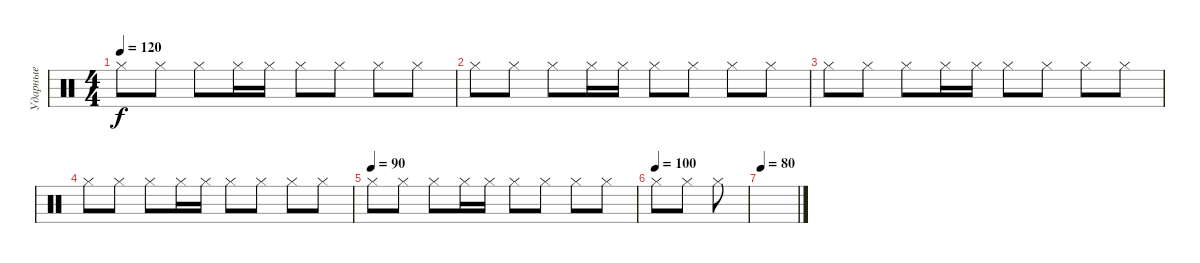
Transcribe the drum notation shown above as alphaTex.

\track ("Ударные" "Ударные") {instrument percussion}
\staff {score}
\articulation defaults
\ts (4 4)
\tempo 120
\clef neutral
\ks c "Hi-Hat (closed)".8{dy f} "Hi-Hat (closed)".8 "Hi-Hat (closed)".8 "Hi-Hat (closed)".16 "Hi-Hat (closed)".16 "Hi-Hat (closed)".8 "Hi-Hat (closed)".8 "Hi-Hat (closed)".8 "Hi-Hat (closed)".8
|
"Hi-Hat (closed)".8 "Hi-Hat (closed)".8 "Hi-Hat (closed)".8 "Hi-Hat (closed)".16 "Hi-Hat (closed)".16 "Hi-Hat (closed)".8 "Hi-Hat (closed)".8 "Hi-Hat (closed)".8 "Hi-Hat (closed)".8 |
"Hi-Hat (closed)".8 "Hi-Hat (closed)".8 "Hi-Hat (closed)".8 "Hi-Hat (closed)".16 "Hi-Hat (closed)".16 "Hi-Hat (closed)".8 "Hi-Hat (closed)".8 "Hi-Hat (closed)".8 "Hi-Hat (closed)".8 |
"Hi-Hat (closed)".8 "Hi-Hat (closed)".8 "Hi-Hat (closed)".8 "Hi-Hat (closed)".16 "Hi-Hat (closed)".16 "Hi-Hat (closed)".8 "Hi-Hat (closed)".8 "Hi-Hat (closed)".8 "Hi-Hat (closed)".8 |
\tempo (90)
"Hi-Hat (closed)".8 "Hi-Hat (closed)".8 "Hi-Hat (closed)".8 "Hi-Hat (closed)".16 "Hi-Hat (closed)".16 "Hi-Hat (closed)".8 "Hi-Hat (closed)".8 "Hi-Hat (closed)".8 "Hi-Hat (closed)".8 |
\tempo 85
\tempo (100)
"Hi-Hat (closed)".8 "Hi-Hat (closed)".8 "Hi-Hat (closed)".8 |
\tempo 80
